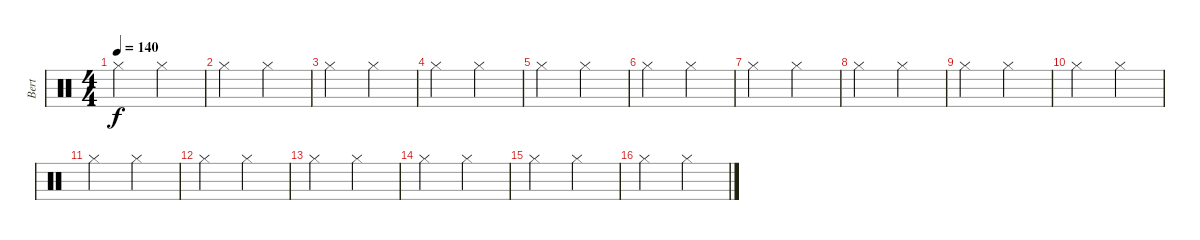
\track ("Bert" "Bert") {instrument percussion}
\staff {score}
\articulation defaults
\ts (4 4)
\tempo 140
\clef neutral
\ks c "Hi-Hat (closed)".2{dy f} "Hi-Hat (closed)".2
|
"Hi-Hat (closed)".2 "Hi-Hat (closed)".2 |
"Hi-Hat (closed)".2 "Hi-Hat (closed)".2 |
"Hi-Hat (closed)".2 "Hi-Hat (closed)".2 |
"Hi-Hat (closed)".2 "Hi-Hat (closed)".2 |
"Hi-Hat (closed)".2 "Hi-Hat (closed)".2 |
"Hi-Hat (closed)".2 "Hi-Hat (closed)".2 |
"Hi-Hat (closed)".2 "Hi-Hat (closed)".2 |
"Hi-Hat (closed)".2 "Hi-Hat (closed)".2 |
"Hi-Hat (closed)".2 "Hi-Hat (closed)".2 |
"Hi-Hat (closed)".2 "Hi-Hat (closed)".2 |
"Hi-Hat (closed)".2 "Hi-Hat (closed)".2 |
"Hi-Hat (closed)".2 "Hi-Hat (closed)".2 |
"Hi-Hat (closed)".2 "Hi-Hat (closed)".2 |
"Hi-Hat (closed)".2 "Hi-Hat (closed)".2 |
"Hi-Hat (closed)".2 "Hi-Hat (closed)".2
